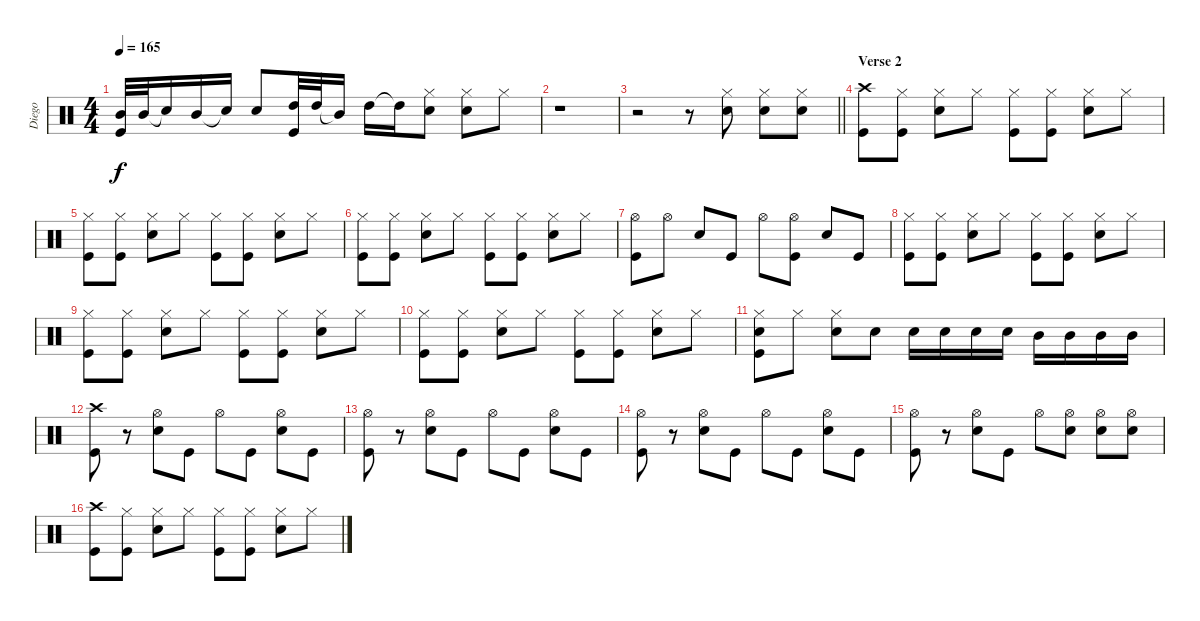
\track ("Diego" "Diego") {instrument percussion}
\staff {score}
\articulation defaults
\ts (4 4)
\tempo 165
\clef neutral
\ks c
("Mid Tom (hit)" "Kick (hit)").32{dy f} "Mid Tom (hit)".32 "Snare (hit)"{t}.16 "Mid Tom (hit)".16 "Snare (hit) 2"{t}.16 "Snare (hit) 2".8 ("High Tom (hit)" "Kick (hit)").32 "High Tom (hit)".32 "Mid Tom (hit)"{t}.16 "High Tom (hit)".16 "High Tom (hit)"{t}.16 ("Hi-Hat (closed)" "Snare (hit) 2").8 ("Hi-Hat (closed)" "Snare (hit) 2").8 "Hi-Hat (closed)".8 |
r.1 |
\barLineRight lightlight
r.2 r.8 ("Hi-Hat (closed)" "Snare (hit) 2").8 ("Hi-Hat (closed)" "Snare (hit) 2").8 ("Hi-Hat (closed)" "Snare (hit) 2").8 |
\section ("" "Verse 2")
("Crash high (hit)" "Kick (hit)").8 ("Hi-Hat (closed)" "Kick (hit)").8 ("Hi-Hat (closed)" "Snare (hit) 2").8 "Hi-Hat (closed)".8 ("Hi-Hat (closed)" "Kick (hit)").8 ("Hi-Hat (closed)" "Kick (hit)").8 ("Hi-Hat (closed)" "Snare (hit) 2").8 "Hi-Hat (closed)".8 |
("Hi-Hat (closed)" "Kick (hit)").8 ("Hi-Hat (closed)" "Kick (hit)").8 ("Hi-Hat (closed)" "Snare (hit) 2").8 "Hi-Hat (closed)".8 ("Hi-Hat (closed)" "Kick (hit)").8 ("Hi-Hat (closed)" "Kick (hit)").8 ("Hi-Hat (closed)" "Snare (hit) 2").8 "Hi-Hat (closed)".8 |
("Hi-Hat (closed)" "Kick (hit)").8 ("Hi-Hat (closed)" "Kick (hit)").8 ("Hi-Hat (closed)" "Snare (hit) 2").8 "Hi-Hat (closed)".8 ("Hi-Hat (closed)" "Kick (hit)").8 ("Hi-Hat (closed)" "Kick (hit)").8 ("Hi-Hat (closed)" "Snare (hit) 2").8 "Hi-Hat (closed)".8 |
("Hi-Hat (open)" "Kick (hit)").8 "Hi-Hat (open)".8 "Snare (hit) 2".8 "Kick (hit)".8 "Hi-Hat (open)".8 ("Hi-Hat (open)" "Kick (hit)").8 "Snare (hit) 2".8 "Kick (hit)".8 |
("Hi-Hat (closed)" "Kick (hit)").8 ("Hi-Hat (closed)" "Kick (hit)").8 ("Hi-Hat (closed)" "Snare (hit) 2").8 "Hi-Hat (closed)".8 ("Hi-Hat (closed)" "Kick (hit)").8 ("Hi-Hat (closed)" "Kick (hit)").8 ("Hi-Hat (closed)" "Snare (hit) 2").8 "Hi-Hat (closed)".8 |
("Hi-Hat (closed)" "Kick (hit)").8 ("Hi-Hat (closed)" "Kick (hit)").8 ("Hi-Hat (closed)" "Snare (hit) 2").8 "Hi-Hat (closed)".8 ("Hi-Hat (closed)" "Kick (hit)").8 ("Hi-Hat (closed)" "Kick (hit)").8 ("Hi-Hat (closed)" "Snare (hit) 2").8 "Hi-Hat (closed)".8 |
("Hi-Hat (closed)" "Kick (hit)").8 ("Hi-Hat (closed)" "Kick (hit)").8 ("Hi-Hat (closed)" "Snare (hit) 2").8 "Hi-Hat (closed)".8 ("Hi-Hat (closed)" "Kick (hit)").8 ("Hi-Hat (closed)" "Kick (hit)").8 ("Hi-Hat (closed)" "Snare (hit) 2").8 "Hi-Hat (closed)".8 |
("Hi-Hat (closed)" "Snare (hit) 2" "Kick (hit)").8 "Hi-Hat (closed)".8 ("Hi-Hat (closed)" "Snare (hit) 2").8 "Snare (hit) 2".8 "Snare (hit) 2".16 "Snare (hit) 2".16 "Snare (hit) 2".16 "Snare (hit) 2".16 "Mid Tom (hit)".16 "Mid Tom (hit)".16 "Mid Tom (hit)".16 "Mid Tom (hit)".16 |
("Crash high (hit)" "Kick (hit)").8 r.8 ("Hi-Hat (open)" "Snare (hit) 2").8 "Kick (hit)".8 "Hi-Hat (open)".8 "Kick (hit)".8 ("Hi-Hat (open)" "Snare (hit) 2").8 "Kick (hit)".8 |
("Hi-Hat (open)" "Kick (hit)").8 r.8 ("Hi-Hat (open)" "Snare (hit) 2").8 "Kick (hit)".8 "Hi-Hat (open)".8 "Kick (hit)".8 ("Hi-Hat (open)" "Snare (hit) 2").8 "Kick (hit)".8 |
("Hi-Hat (open)" "Kick (hit)").8 r.8 ("Hi-Hat (open)" "Snare (hit) 2").8 "Kick (hit)".8 "Hi-Hat (open)".8 "Kick (hit)".8 ("Hi-Hat (open)" "Snare (hit) 2").8 "Kick (hit)".8 |
("Hi-Hat (open)" "Kick (hit)").8 r.8 ("Hi-Hat (open)" "Snare (hit) 2").8 "Kick (hit)".8 "Hi-Hat (open)".8 ("Hi-Hat (open)" "Snare (hit) 2").8 ("Hi-Hat (open)" "Snare (hit) 2").8 ("Hi-Hat (open)" "Snare (hit) 2").8 |
("Crash high (hit)" "Kick (hit)").8 ("Hi-Hat (closed)" "Kick (hit)").8 ("Hi-Hat (closed)" "Snare (hit) 2").8 "Hi-Hat (closed)".8 ("Hi-Hat (closed)" "Kick (hit)").8 ("Hi-Hat (closed)" "Kick (hit)").8 ("Hi-Hat (closed)" "Snare (hit) 2").8 "Hi-Hat (closed)".8
